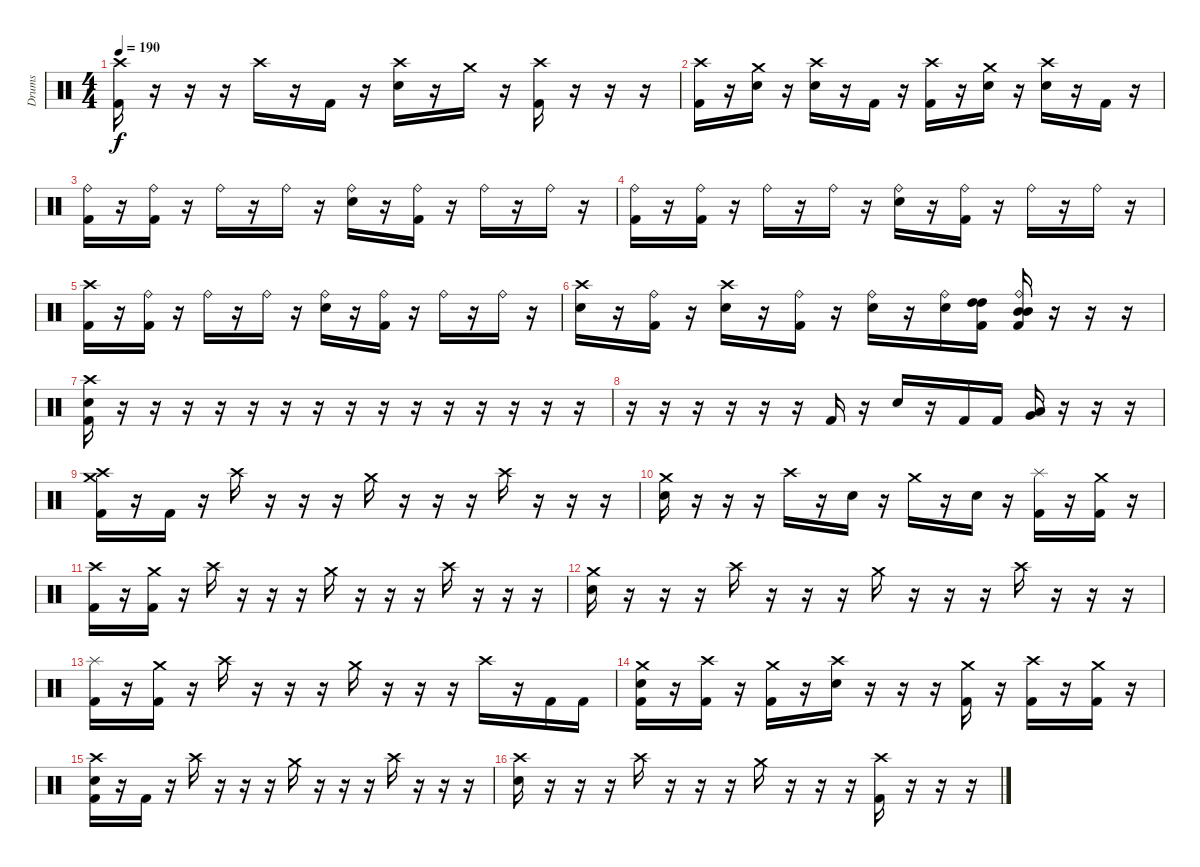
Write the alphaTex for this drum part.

\track ("Drums" "Drums") {instrument percussion}
\staff {score}
\articulation defaults
\ts (4 4)
\tempo 190
\clef neutral
\ks c
("Crash high (hit)" "Kick (hit) 2").16{dy f} r.16 r.16 r.16 "Crash high (hit)".16 r.16 "Kick (hit) 2".16 r.16 ("Crash high (hit)" "Electric Snare (hit)").16 r.16 "Crash medium (hit)".16 r.16 ("Crash high (hit)" "Kick (hit) 2").16 r.16 r.16 r.16 |
("Crash high (hit)" "Kick (hit) 2").16 r.16 ("Crash medium (hit)" "Electric Snare (hit)").16 r.16 ("Crash high (hit)" "Electric Snare (hit)").16 r.16 "Kick (hit) 2".16 r.16 ("Crash high (hit)" "Kick (hit) 2").16 r.16 ("Crash medium (hit)" "Electric Snare (hit)").16 r.16 ("Crash high (hit)" "Electric Snare (hit)").16 r.16 "Kick (hit) 2".16 r.16 |
("Ride (bell)" "Kick (hit) 2").16 r.16 ("Ride (bell)" "Kick (hit) 2").16 r.16 "Ride (bell)".16 r.16 "Ride (bell)".16 r.16 ("Ride (bell)" "Electric Snare (hit)").16 r.16 ("Ride (bell)" "Kick (hit) 2").16 r.16 "Ride (bell)".16 r.16 "Ride (bell)".16 r.16 |
("Ride (bell)" "Kick (hit) 2").16 r.16 ("Ride (bell)" "Kick (hit) 2").16 r.16 "Ride (bell)".16 r.16 "Ride (bell)".16 r.16 ("Ride (bell)" "Electric Snare (hit)").16 r.16 ("Ride (bell)" "Kick (hit) 2").16 r.16 "Ride (bell)".16 r.16 "Ride (bell)".16 r.16 |
("Crash high (hit)" "Kick (hit) 2").16 r.16 ("Ride (bell)" "Kick (hit) 2").16 r.16 "Ride (bell)".16 r.16 "Ride (bell)".16 r.16 ("Ride (bell)" "Electric Snare (hit)").16 r.16 ("Ride (bell)" "Kick (hit) 2").16 r.16 "Ride (bell)".16 r.16 "Ride (bell)".16 r.16 |
("Crash high (hit)" "Electric Snare (hit)").16 r.16 ("Ride (bell)" "Kick (hit) 2").16 r.16 ("Crash high (hit)" "Electric Snare (hit)").16 r.16 ("Ride (bell)" "Kick (hit) 2").16 r.16 ("Ride (bell)" "Electric Snare (hit)").16 r.16 ("Ride (bell)" "Electric Snare (hit)").16 ("High Tom (hit)" "High Tom (hit)" "Kick (hit) 2").16 ("Ride (bell)" "Mid Tom (hit)" "Mid Tom (hit)" "Kick (hit) 2").16 r.16 r.16 r.16 |
("Crash high (hit)" "Electric Snare (hit)" "Kick (hit) 2").16 r.16 r.16 r.16 r.16 r.16 r.16 r.16 r.16 r.16 r.16 r.16 r.16 r.16 r.16 r.16 |
r.16 r.16 r.16 r.16 r.16 r.16 "Kick (hit) 2".16 r.16 "Electric Snare (hit)".16 r.16 "Kick (hit) 2".16 "Kick (hit) 2".16 ("Very Low Tom (hit)" "Low Tom (hit)").16 r.16 r.16 r.16 |
("Crash medium (hit)" "Crash high (hit)" "Kick (hit) 2").16 r.16 "Kick (hit) 2".16 r.16 "Crash high (hit)".16 r.16 r.16 r.16 "Crash medium (hit)".16 r.16 r.16 r.16 "Crash high (hit)".16 r.16 r.16 r.16 |
("Crash medium (hit)" "Electric Snare (hit)").16 r.16 r.16 r.16 "Crash high (hit)".16 r.16 "Electric Snare (hit)".16 r.16 "Crash medium (hit)".16 r.16 "Electric Snare (hit)".16 r.16 ("Splash (hit)" "Kick (hit) 2").16 r.16 ("Crash medium (hit)" "Kick (hit) 2").16 r.16 |
("Crash high (hit)" "Kick (hit) 2").16 r.16 ("Crash medium (hit)" "Kick (hit) 2").16 r.16 "Crash high (hit)".16 r.16 r.16 r.16 "Crash medium (hit)".16 r.16 r.16 r.16 "Crash high (hit)".16 r.16 r.16 r.16 |
("Crash medium (hit)" "Electric Snare (hit)").16 r.16 r.16 r.16 "Crash high (hit)".16 r.16 r.16 r.16 "Crash medium (hit)".16 r.16 r.16 r.16 "Crash high (hit)".16 r.16 r.16 r.16 |
("Splash (hit)" "Kick (hit) 2").16 r.16 ("Crash medium (hit)" "Kick (hit) 2").16 r.16 "Crash high (hit)".16 r.16 r.16 r.16 "Crash medium (hit)".16 r.16 r.16 r.16 "Crash high (hit)".16 r.16 "Kick (hit) 2".16 "Kick (hit) 2".16 |
("Crash medium (hit)" "Electric Snare (hit)" "Kick (hit) 2").16 r.16 ("Crash high (hit)" "Kick (hit) 2").16 r.16 ("Crash medium (hit)" "Kick (hit) 2").16 r.16 ("Crash high (hit)" "Electric Snare (hit)").16 r.16 r.16 r.16 ("Crash medium (hit)" "Kick (hit) 2").16 r.16 ("Crash high (hit)" "Kick (hit) 2").16 r.16 ("Crash medium (hit)" "Kick (hit) 2").16 r.16 |
("Crash high (hit)" "Electric Snare (hit)" "Kick (hit) 2").16 r.16 "Kick (hit) 2".16 r.16 "Crash high (hit)".16 r.16 r.16 r.16 "Crash medium (hit)".16 r.16 r.16 r.16 "Crash high (hit)".16 r.16 r.16 r.16 |
("Crash high (hit)" "Electric Snare (hit)").16 r.16 r.16 r.16 "Crash high (hit)".16 r.16 r.16 r.16 "Crash medium (hit)".16 r.16 r.16 r.16 ("Crash high (hit)" "Kick (hit) 2").16 r.16 r.16 r.16
